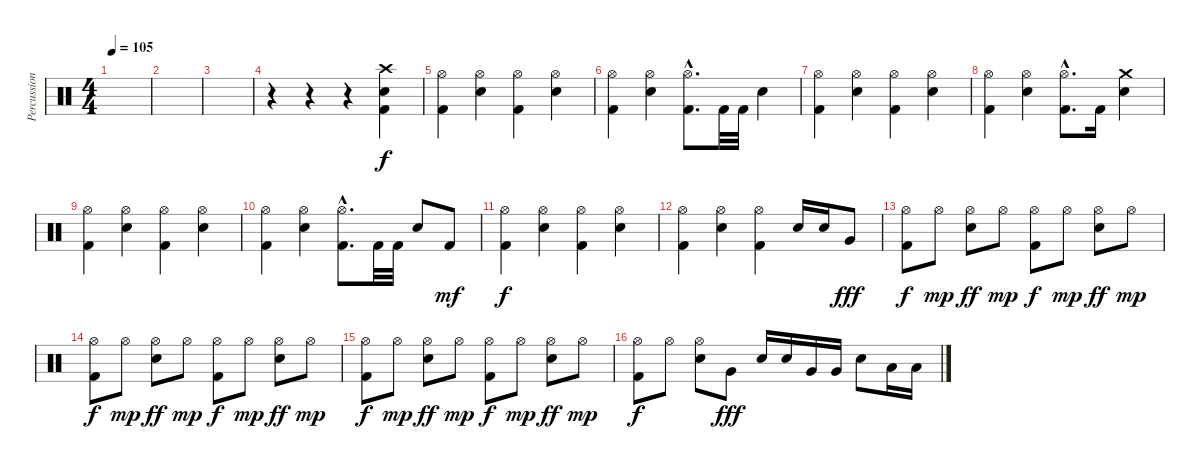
\track ("Percussion" "Percussion") {instrument percussion}
\staff {score}
\articulation defaults
\ts (4 4)
\tempo 105
\clef neutral
\ks c
|
|
|
r.4 r.4 r.4 ("Crash high (hit)" "Snare (hit) 2" "Kick (hit) 2").4 |
("Hi-Hat (open)" "Kick (hit) 2").4 ("Hi-Hat (open)" "Snare (hit) 2").4 ("Hi-Hat (open)" "Kick (hit) 2").4 ("Hi-Hat (open)" "Snare (hit) 2").4 |
("Hi-Hat (open)" "Kick (hit) 2").4 ("Hi-Hat (open)" "Snare (hit) 2").4 ("Hi-Hat (open)"{hac} "Kick (hit) 2"{hac}).8{d} "Kick (hit) 2".32 "Kick (hit) 2".32 "Snare (hit) 2".4 |
("Hi-Hat (open)" "Kick (hit) 2").4 ("Hi-Hat (open)" "Snare (hit) 2").4 ("Hi-Hat (open)" "Kick (hit) 2").4 ("Hi-Hat (open)" "Snare (hit) 2").4 |
("Hi-Hat (open)" "Kick (hit) 2").4 ("Hi-Hat (open)" "Snare (hit) 2").4 ("Hi-Hat (open)"{hac} "Kick (hit) 2"{hac}).8{d} "Kick (hit) 2".16 ("Crash medium (hit)" "Snare (hit) 2").4 |
("Hi-Hat (open)" "Kick (hit) 2").4 ("Hi-Hat (open)" "Snare (hit) 2").4 ("Hi-Hat (open)" "Kick (hit) 2").4 ("Hi-Hat (open)" "Snare (hit) 2").4 |
("Hi-Hat (open)" "Kick (hit) 2").4 ("Hi-Hat (open)" "Snare (hit) 2").4 ("Hi-Hat (open)"{hac} "Kick (hit) 2"{hac}).8{d} "Kick (hit) 2".32 "Kick (hit) 2".32 "Snare (hit) 2".8 "Kick (hit) 2".8{dy mf} |
("Hi-Hat (open)" "Kick (hit) 2").4{dy f} ("Hi-Hat (open)" "Snare (hit) 2").4 ("Hi-Hat (open)" "Kick (hit) 2").4 ("Hi-Hat (open)" "Snare (hit) 2").4 |
("Hi-Hat (open)" "Kick (hit) 2").4 ("Hi-Hat (open)" "Snare (hit) 2").4 ("Hi-Hat (open)" "Kick (hit) 2").4 "Snare (hit) 2".16 "Snare (hit) 2".16 "Very Low Tom (hit)".8{dy fff} |
("Hi-Hat (open)" "Kick (hit) 2").8{dy f} "Hi-Hat (open)".8{dy mp} ("Hi-Hat (open)" "Snare (hit) 2").8{dy ff} "Hi-Hat (open)".8{dy mp} ("Hi-Hat (open)" "Kick (hit) 2").8{dy f} "Hi-Hat (open)".8{dy mp} ("Hi-Hat (open)" "Snare (hit) 2").8{dy ff} "Hi-Hat (open)".8{dy mp} |
("Hi-Hat (open)" "Kick (hit) 2").8{dy f} "Hi-Hat (open)".8{dy mp} ("Hi-Hat (open)" "Snare (hit) 2").8{dy ff} "Hi-Hat (open)".8{dy mp} ("Hi-Hat (open)" "Kick (hit) 2").8{dy f} "Hi-Hat (open)".8{dy mp} ("Hi-Hat (open)" "Snare (hit) 2").8{dy ff} "Hi-Hat (open)".8{dy mp} |
("Hi-Hat (open)" "Kick (hit) 2").8{dy f} "Hi-Hat (open)".8{dy mp} ("Hi-Hat (open)" "Snare (hit) 2").8{dy ff} "Hi-Hat (open)".8{dy mp} ("Hi-Hat (open)" "Kick (hit) 2").8{dy f} "Hi-Hat (open)".8{dy mp} ("Hi-Hat (open)" "Snare (hit) 2").8{dy ff} "Hi-Hat (open)".8{dy mp} |
("Hi-Hat (open)" "Kick (hit) 2").8{dy f} "Hi-Hat (open)".8 ("Hi-Hat (open)" "Snare (hit) 2").8 "Very Low Tom (hit)".8{dy fff} "Snare (hit) 2".16 "Snare (hit) 2".16 "Very Low Tom (hit)".16 "Very Low Tom (hit)".16 "Snare (hit) 2".8 "Low Floor Tom (hit)".16 "Low Floor Tom (hit)".16
